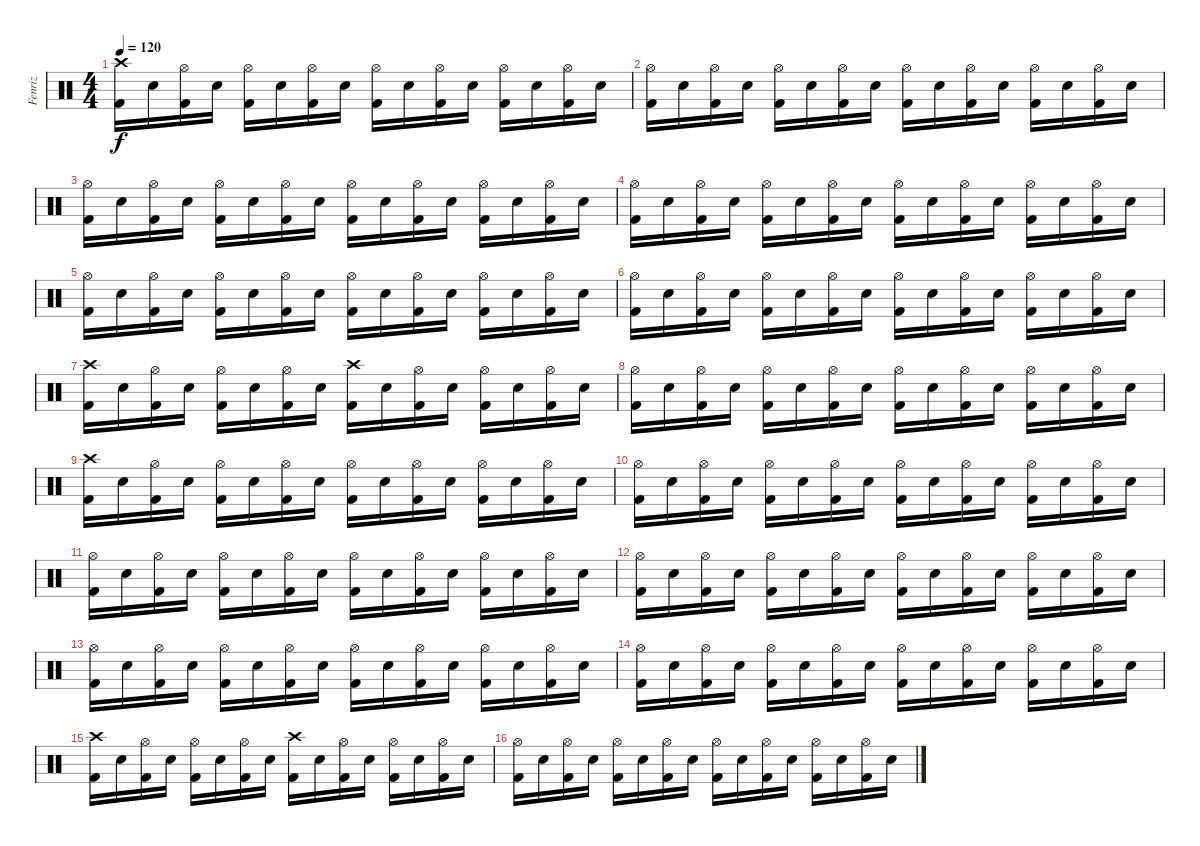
\track ("Fenriz" "Fenriz") {instrument percussion}
\staff {score}
\articulation defaults
\ts (4 4)
\tempo 120
\clef neutral
\ks c
("Kick (hit) 2" "Crash high (hit)").16{dy f} "Electric Snare (hit)".16 ("Kick (hit) 2" "Hi-Hat (open)").16 "Electric Snare (hit)".16 ("Kick (hit) 2" "Hi-Hat (open)").16 "Electric Snare (hit)".16 ("Kick (hit) 2" "Hi-Hat (open)").16 "Electric Snare (hit)".16 ("Kick (hit) 2" "Hi-Hat (open)").16 "Electric Snare (hit)".16 ("Kick (hit) 2" "Hi-Hat (open)").16 "Electric Snare (hit)".16 ("Kick (hit) 2" "Hi-Hat (open)").16 "Electric Snare (hit)".16 ("Kick (hit) 2" "Hi-Hat (open)").16 "Electric Snare (hit)".16 |
("Kick (hit) 2" "Hi-Hat (open)").16 "Electric Snare (hit)".16 ("Kick (hit) 2" "Hi-Hat (open)").16 "Electric Snare (hit)".16 ("Kick (hit) 2" "Hi-Hat (open)").16 "Electric Snare (hit)".16 ("Kick (hit) 2" "Hi-Hat (open)").16 "Electric Snare (hit)".16 ("Kick (hit) 2" "Hi-Hat (open)").16 "Electric Snare (hit)".16 ("Kick (hit) 2" "Hi-Hat (open)").16 "Electric Snare (hit)".16 ("Kick (hit) 2" "Hi-Hat (open)").16 "Electric Snare (hit)".16 ("Kick (hit) 2" "Hi-Hat (open)").16 "Electric Snare (hit)".16 |
("Kick (hit) 2" "Hi-Hat (open)").16 "Electric Snare (hit)".16 ("Kick (hit) 2" "Hi-Hat (open)").16 "Electric Snare (hit)".16 ("Kick (hit) 2" "Hi-Hat (open)").16 "Electric Snare (hit)".16 ("Kick (hit) 2" "Hi-Hat (open)").16 "Electric Snare (hit)".16 ("Kick (hit) 2" "Hi-Hat (open)").16 "Electric Snare (hit)".16 ("Kick (hit) 2" "Hi-Hat (open)").16 "Electric Snare (hit)".16 ("Kick (hit) 2" "Hi-Hat (open)").16 "Electric Snare (hit)".16 ("Kick (hit) 2" "Hi-Hat (open)").16 "Electric Snare (hit)".16 |
("Kick (hit) 2" "Hi-Hat (open)").16 "Electric Snare (hit)".16 ("Kick (hit) 2" "Hi-Hat (open)").16 "Electric Snare (hit)".16 ("Kick (hit) 2" "Hi-Hat (open)").16 "Electric Snare (hit)".16 ("Kick (hit) 2" "Hi-Hat (open)").16 "Electric Snare (hit)".16 ("Kick (hit) 2" "Hi-Hat (open)").16 "Electric Snare (hit)".16 ("Kick (hit) 2" "Hi-Hat (open)").16 "Electric Snare (hit)".16 ("Kick (hit) 2" "Hi-Hat (open)").16 "Electric Snare (hit)".16 ("Kick (hit) 2" "Hi-Hat (open)").16 "Electric Snare (hit)".16 |
("Kick (hit) 2" "Hi-Hat (open)").16 "Electric Snare (hit)".16 ("Kick (hit) 2" "Hi-Hat (open)").16 "Electric Snare (hit)".16 ("Kick (hit) 2" "Hi-Hat (open)").16 "Electric Snare (hit)".16 ("Kick (hit) 2" "Hi-Hat (open)").16 "Electric Snare (hit)".16 ("Kick (hit) 2" "Hi-Hat (open)").16 "Electric Snare (hit)".16 ("Kick (hit) 2" "Hi-Hat (open)").16 "Electric Snare (hit)".16 ("Kick (hit) 2" "Hi-Hat (open)").16 "Electric Snare (hit)".16 ("Kick (hit) 2" "Hi-Hat (open)").16 "Electric Snare (hit)".16 |
("Kick (hit) 2" "Hi-Hat (open)").16 "Electric Snare (hit)".16 ("Kick (hit) 2" "Hi-Hat (open)").16 "Electric Snare (hit)".16 ("Kick (hit) 2" "Hi-Hat (open)").16 "Electric Snare (hit)".16 ("Kick (hit) 2" "Hi-Hat (open)").16 "Electric Snare (hit)".16 ("Kick (hit) 2" "Hi-Hat (open)").16 "Electric Snare (hit)".16 ("Kick (hit) 2" "Hi-Hat (open)").16 "Electric Snare (hit)".16 ("Kick (hit) 2" "Hi-Hat (open)").16 "Electric Snare (hit)".16 ("Kick (hit) 2" "Hi-Hat (open)").16 "Electric Snare (hit)".16 |
("Kick (hit) 2" "Crash high (hit)").16 "Electric Snare (hit)".16 ("Kick (hit) 2" "Hi-Hat (open)").16 "Electric Snare (hit)".16 ("Kick (hit) 2" "Hi-Hat (open)").16 "Electric Snare (hit)".16 ("Kick (hit) 2" "Hi-Hat (open)").16 "Electric Snare (hit)".16 ("Kick (hit) 2" "Crash high (hit)").16 "Electric Snare (hit)".16 ("Kick (hit) 2" "Hi-Hat (open)").16 "Electric Snare (hit)".16 ("Kick (hit) 2" "Hi-Hat (open)").16 "Electric Snare (hit)".16 ("Kick (hit) 2" "Hi-Hat (open)").16 "Electric Snare (hit)".16 |
("Kick (hit) 2" "Hi-Hat (open)").16 "Electric Snare (hit)".16 ("Kick (hit) 2" "Hi-Hat (open)").16 "Electric Snare (hit)".16 ("Kick (hit) 2" "Hi-Hat (open)").16 "Electric Snare (hit)".16 ("Kick (hit) 2" "Hi-Hat (open)").16 "Electric Snare (hit)".16 ("Kick (hit) 2" "Hi-Hat (open)").16 "Electric Snare (hit)".16 ("Kick (hit) 2" "Hi-Hat (open)").16 "Electric Snare (hit)".16 ("Kick (hit) 2" "Hi-Hat (open)").16 "Electric Snare (hit)".16 ("Kick (hit) 2" "Hi-Hat (open)").16 "Electric Snare (hit)".16 |
("Kick (hit) 2" "Crash high (hit)").16 "Electric Snare (hit)".16 ("Kick (hit) 2" "Hi-Hat (open)").16 "Electric Snare (hit)".16 ("Kick (hit) 2" "Hi-Hat (open)").16 "Electric Snare (hit)".16 ("Kick (hit) 2" "Hi-Hat (open)").16 "Electric Snare (hit)".16 ("Kick (hit) 2" "Hi-Hat (open)").16 "Electric Snare (hit)".16 ("Kick (hit) 2" "Hi-Hat (open)").16 "Electric Snare (hit)".16 ("Kick (hit) 2" "Hi-Hat (open)").16 "Electric Snare (hit)".16 ("Kick (hit) 2" "Hi-Hat (open)").16 "Electric Snare (hit)".16 |
("Kick (hit) 2" "Hi-Hat (open)").16 "Electric Snare (hit)".16 ("Kick (hit) 2" "Hi-Hat (open)").16 "Electric Snare (hit)".16 ("Kick (hit) 2" "Hi-Hat (open)").16 "Electric Snare (hit)".16 ("Kick (hit) 2" "Hi-Hat (open)").16 "Electric Snare (hit)".16 ("Kick (hit) 2" "Hi-Hat (open)").16 "Electric Snare (hit)".16 ("Kick (hit) 2" "Hi-Hat (open)").16 "Electric Snare (hit)".16 ("Kick (hit) 2" "Hi-Hat (open)").16 "Electric Snare (hit)".16 ("Kick (hit) 2" "Hi-Hat (open)").16 "Electric Snare (hit)".16 |
("Kick (hit) 2" "Hi-Hat (open)").16 "Electric Snare (hit)".16 ("Kick (hit) 2" "Hi-Hat (open)").16 "Electric Snare (hit)".16 ("Kick (hit) 2" "Hi-Hat (open)").16 "Electric Snare (hit)".16 ("Kick (hit) 2" "Hi-Hat (open)").16 "Electric Snare (hit)".16 ("Kick (hit) 2" "Hi-Hat (open)").16 "Electric Snare (hit)".16 ("Kick (hit) 2" "Hi-Hat (open)").16 "Electric Snare (hit)".16 ("Kick (hit) 2" "Hi-Hat (open)").16 "Electric Snare (hit)".16 ("Kick (hit) 2" "Hi-Hat (open)").16 "Electric Snare (hit)".16 |
("Kick (hit) 2" "Hi-Hat (open)").16 "Electric Snare (hit)".16 ("Kick (hit) 2" "Hi-Hat (open)").16 "Electric Snare (hit)".16 ("Kick (hit) 2" "Hi-Hat (open)").16 "Electric Snare (hit)".16 ("Kick (hit) 2" "Hi-Hat (open)").16 "Electric Snare (hit)".16 ("Kick (hit) 2" "Hi-Hat (open)").16 "Electric Snare (hit)".16 ("Kick (hit) 2" "Hi-Hat (open)").16 "Electric Snare (hit)".16 ("Kick (hit) 2" "Hi-Hat (open)").16 "Electric Snare (hit)".16 ("Kick (hit) 2" "Hi-Hat (open)").16 "Electric Snare (hit)".16 |
("Kick (hit) 2" "Hi-Hat (open)").16 "Electric Snare (hit)".16 ("Kick (hit) 2" "Hi-Hat (open)").16 "Electric Snare (hit)".16 ("Kick (hit) 2" "Hi-Hat (open)").16 "Electric Snare (hit)".16 ("Kick (hit) 2" "Hi-Hat (open)").16 "Electric Snare (hit)".16 ("Kick (hit) 2" "Hi-Hat (open)").16 "Electric Snare (hit)".16 ("Kick (hit) 2" "Hi-Hat (open)").16 "Electric Snare (hit)".16 ("Kick (hit) 2" "Hi-Hat (open)").16 "Electric Snare (hit)".16 ("Kick (hit) 2" "Hi-Hat (open)").16 "Electric Snare (hit)".16 |
("Kick (hit) 2" "Hi-Hat (open)").16 "Electric Snare (hit)".16 ("Kick (hit) 2" "Hi-Hat (open)").16 "Electric Snare (hit)".16 ("Kick (hit) 2" "Hi-Hat (open)").16 "Electric Snare (hit)".16 ("Kick (hit) 2" "Hi-Hat (open)").16 "Electric Snare (hit)".16 ("Kick (hit) 2" "Hi-Hat (open)").16 "Electric Snare (hit)".16 ("Kick (hit) 2" "Hi-Hat (open)").16 "Electric Snare (hit)".16 ("Kick (hit) 2" "Hi-Hat (open)").16 "Electric Snare (hit)".16 ("Kick (hit) 2" "Hi-Hat (open)").16 "Electric Snare (hit)".16 |
("Kick (hit) 2" "Crash high (hit)").16 "Electric Snare (hit)".16 ("Kick (hit) 2" "Hi-Hat (open)").16 "Electric Snare (hit)".16 ("Kick (hit) 2" "Hi-Hat (open)").16 "Electric Snare (hit)".16 ("Kick (hit) 2" "Hi-Hat (open)").16 "Electric Snare (hit)".16 ("Kick (hit) 2" "Crash high (hit)").16 "Electric Snare (hit)".16 ("Kick (hit) 2" "Hi-Hat (open)").16 "Electric Snare (hit)".16 ("Kick (hit) 2" "Hi-Hat (open)").16 "Electric Snare (hit)".16 ("Kick (hit) 2" "Hi-Hat (open)").16 "Electric Snare (hit)".16 |
("Kick (hit) 2" "Hi-Hat (open)").16 "Electric Snare (hit)".16 ("Kick (hit) 2" "Hi-Hat (open)").16 "Electric Snare (hit)".16 ("Kick (hit) 2" "Hi-Hat (open)").16 "Electric Snare (hit)".16 ("Kick (hit) 2" "Hi-Hat (open)").16 "Electric Snare (hit)".16 ("Kick (hit) 2" "Hi-Hat (open)").16 "Electric Snare (hit)".16 ("Kick (hit) 2" "Hi-Hat (open)").16 "Electric Snare (hit)".16 ("Kick (hit) 2" "Hi-Hat (open)").16 "Electric Snare (hit)".16 ("Kick (hit) 2" "Hi-Hat (open)").16 "Electric Snare (hit)".16
